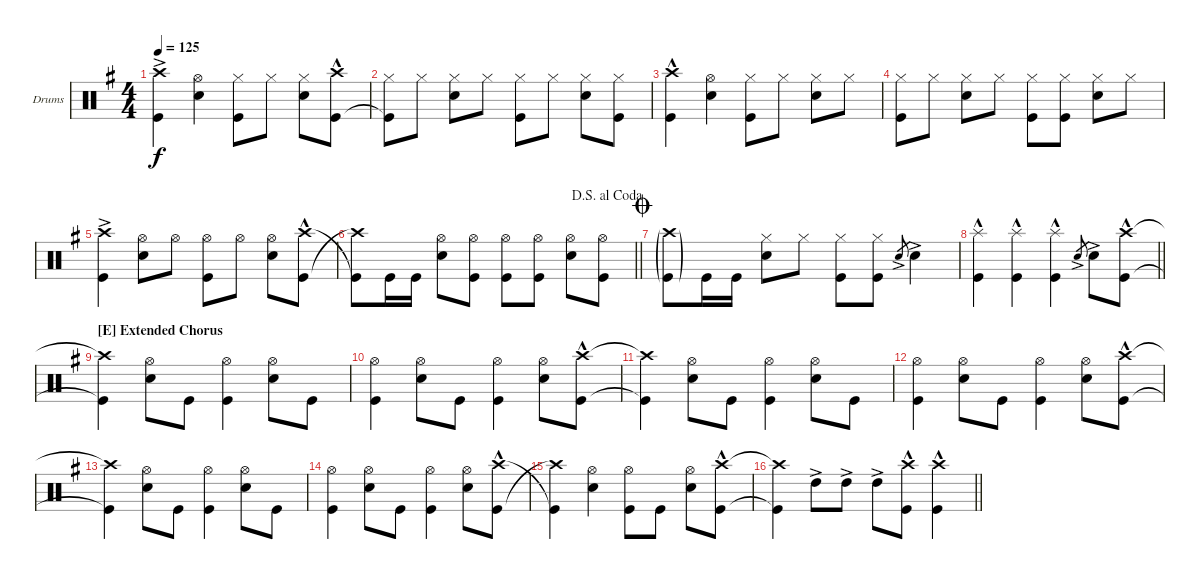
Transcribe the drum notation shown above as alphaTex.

\defaultSystemsLayout 4
\bracketExtendMode groupsimilarinstruments
\firstSystemTrackNameOrientation horizontal
\otherSystemsTrackNameOrientation horizontal
\track ("Mark Cavarzan Drums" "Drums") {instrument percussion}
\staff {score}
\articulation defaults
\ts (4 4)
\tempo 125
\clef neutral
\ks g
("Kick (hit)"{ac} "Crash high (hit)"{ac}).4{dy f} ("Hi-Hat (open)" "Snare (hit) 2").4 ("Kick (hit)" "Hi-Hat (closed)").8 "Hi-Hat (closed)".8 ("Hi-Hat (closed)" "Snare (hit) 2").8 ("Kick (hit)"{hac} "Crash high (hit)"{hac}).8 |
("Kick (hit)"{t} "Hi-Hat (closed)").8 "Hi-Hat (closed)".8 ("Hi-Hat (closed)" "Snare (hit) 2").8 "Hi-Hat (closed)".8 ("Hi-Hat (closed)" "Kick (hit)").8 "Hi-Hat (closed)".8 ("Hi-Hat (closed)" "Snare (hit) 2").8 ("Hi-Hat (closed)" "Kick (hit)").8 |
("Kick (hit)"{hac} "Crash high (hit)"{hac}).4 ("Hi-Hat (open)" "Snare (hit) 2").4 ("Kick (hit)" "Hi-Hat (closed)").8 "Hi-Hat (closed)".8 ("Hi-Hat (closed)" "Snare (hit) 2").8 "Hi-Hat (closed)".8 |
("Hi-Hat (closed)" "Kick (hit)").8 "Hi-Hat (closed)".8 ("Hi-Hat (closed)" "Snare (hit) 2").8 "Hi-Hat (closed)".8 ("Hi-Hat (closed)" "Kick (hit)").8 ("Hi-Hat (closed)" "Kick (hit)").8 ("Hi-Hat (closed)" "Snare (hit) 2").8 "Hi-Hat (closed)".8 |
("Kick (hit)"{ac} "Crash high (hit)"{ac}).4 ("Hi-Hat (open)" "Snare (hit) 2").8 "Hi-Hat (open)".8 ("Hi-Hat (open)" "Kick (hit)").8 "Hi-Hat (open)".8 ("Hi-Hat (open)" "Snare (hit) 2").8 ("Kick (hit)"{hac} "Crash high (hit)"{hac}).8 |
\jump dalsegnoalcoda
\barLineRight lightlight
("Crash high (hit)"{t} "Kick (hit)"{t}).8 "Kick (hit)".16 "Kick (hit)".16 ("Snare (hit) 2" "Hi-Hat (open)").8 ("Kick (hit)" "Hi-Hat (open)").8 ("Kick (hit)" "Hi-Hat (open)").8 ("Kick (hit)" "Hi-Hat (open)").8 ("Snare (hit) 2" "Hi-Hat (open)").8 ("Kick (hit)" "Hi-Hat (open)").8 |
\jump coda
("Crash high (hit)"{g} "Kick (hit)"{g}).8 "Kick (hit)".16 "Kick (hit)".16 ("Snare (hit) 2" "Hi-Hat (closed)").8 "Hi-Hat (closed)".8 ("Hi-Hat (closed)" "Kick (hit)").8 ("Hi-Hat (closed)" "Kick (hit)").8 "Snare (hit) 2"{ac}.8{gr} "Snare (hit) 2"{ac}.4 |
\barLineRight lightlight
("Kick (hit)"{hac} "Splash (hit)"{hac}).4 ("Kick (hit)"{hac} "Splash (hit)"{hac}).4 ("Kick (hit)"{hac} "Splash (hit)"{hac}).4 "Snare (hit) 2"{ac}.8{gr} "Snare (hit) 2"{ac}.8 ("Kick (hit)"{hac} "Crash high (hit)"{hac}).8 |
\section ("E" "Extended Chorus")
("Kick (hit)"{t} "Crash high (hit)"{t}).4 ("Hi-Hat (open)" "Snare (hit) 2").8 "Kick (hit)".8 ("Kick (hit)" "Hi-Hat (open)").4 ("Hi-Hat (open)" "Snare (hit) 2").8 "Kick (hit)".8 |
("Kick (hit)" "Hi-Hat (open)").4 ("Hi-Hat (open)" "Snare (hit) 2").8 "Kick (hit)".8 ("Kick (hit)" "Hi-Hat (open)").4 ("Hi-Hat (open)" "Snare (hit) 2").8 ("Kick (hit)"{hac} "Crash high (hit)"{hac}).8 |
("Kick (hit)"{t} "Crash high (hit)"{t}).4 ("Hi-Hat (open)" "Snare (hit) 2").8 "Kick (hit)".8 ("Kick (hit)" "Hi-Hat (open)").4 ("Hi-Hat (open)" "Snare (hit) 2").8 "Kick (hit)".8 |
("Kick (hit)" "Hi-Hat (open)").4 ("Hi-Hat (open)" "Snare (hit) 2").8 "Kick (hit)".8 ("Kick (hit)" "Hi-Hat (open)").4 ("Hi-Hat (open)" "Snare (hit) 2").8 ("Kick (hit)"{hac} "Crash high (hit)"{hac}).8 |
("Kick (hit)"{t} "Crash high (hit)"{t}).4 ("Hi-Hat (open)" "Snare (hit) 2").8 "Kick (hit)".8 ("Kick (hit)" "Hi-Hat (open)").4 ("Hi-Hat (open)" "Snare (hit) 2").8 "Kick (hit)".8 |
("Kick (hit)" "Hi-Hat (open)").4 ("Hi-Hat (open)" "Snare (hit) 2").8 "Kick (hit)".8 ("Kick (hit)" "Hi-Hat (open)").4 ("Hi-Hat (open)" "Snare (hit) 2").8 ("Kick (hit)"{hac} "Crash high (hit)"{hac}).8 |
("Crash high (hit)"{t} "Kick (hit)"{t}).4 ("Snare (hit) 2" "Hi-Hat (open)").4 ("Hi-Hat (open)" "Kick (hit)").8 "Kick (hit)".8 ("Snare (hit) 2" "Hi-Hat (open)").8 ("Crash high (hit)"{hac} "Kick (hit)"{hac}).8 |
\barLineRight lightlight
("Crash high (hit)"{t} "Kick (hit)"{t}).4 "High Tom (hit)"{ac}.8 "High Tom (hit)"{ac}.8 "High Tom (hit)"{ac}.8 ("Crash high (hit)"{hac} "Kick (hit)"{hac}).8 ("Kick (hit)"{hac} "Crash high (hit)"{hac}).4
